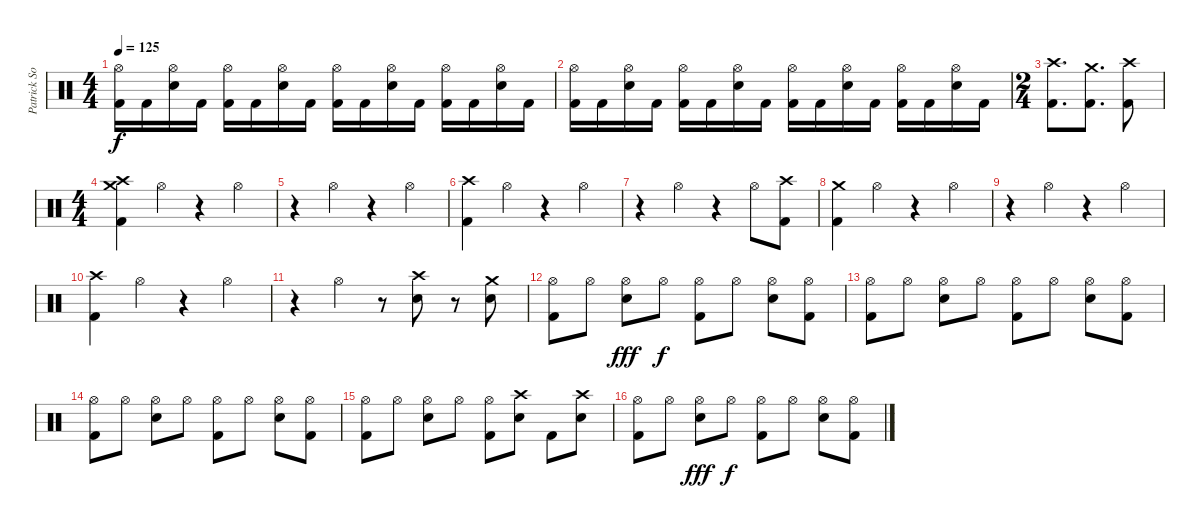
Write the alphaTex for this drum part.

\track ("Patrick Soria" "Patrick So") {instrument percussion}
\staff {score}
\articulation defaults
\ts (4 4)
\tempo 125
\clef neutral
\ks c
("Hi-Hat (open)" "Kick (hit) 2").16{dy f} "Kick (hit) 2".16 ("Hi-Hat (open)" "Snare (hit) 2").16 "Kick (hit) 2".16 ("Hi-Hat (open)" "Kick (hit) 2").16 "Kick (hit) 2".16 ("Hi-Hat (open)" "Snare (hit) 2").16 "Kick (hit) 2".16 ("Hi-Hat (open)" "Kick (hit) 2").16 "Kick (hit) 2".16 ("Hi-Hat (open)" "Snare (hit) 2").16 "Kick (hit) 2".16 ("Hi-Hat (open)" "Kick (hit) 2").16 "Kick (hit) 2".16 ("Hi-Hat (open)" "Snare (hit) 2").16 "Kick (hit) 2".16 |
("Hi-Hat (open)" "Kick (hit) 2").16 "Kick (hit) 2".16 ("Hi-Hat (open)" "Snare (hit) 2").16 "Kick (hit) 2".16 ("Hi-Hat (open)" "Kick (hit) 2").16 "Kick (hit) 2".16 ("Hi-Hat (open)" "Snare (hit) 2").16 "Kick (hit) 2".16 ("Hi-Hat (open)" "Kick (hit) 2").16 "Kick (hit) 2".16 ("Hi-Hat (open)" "Snare (hit) 2").16 "Kick (hit) 2".16 ("Hi-Hat (open)" "Kick (hit) 2").16 "Kick (hit) 2".16 ("Hi-Hat (open)" "Snare (hit) 2").16 "Kick (hit) 2".16 |
\ts (2 4)
("Crash high (hit)" "Kick (hit) 2").8{d} ("Crash medium (hit)" "Kick (hit) 2").8{d} ("Crash high (hit)" "Kick (hit) 2").8 |
\ts (4 4)
("Crash high (hit)" "Crash medium (hit)" "Kick (hit) 2").4 "Hi-Hat (open)".4 r.4 "Hi-Hat (open)".4 |
r.4 "Hi-Hat (open)".4 r.4 "Hi-Hat (open)".4 |
("Crash high (hit)" "Kick (hit) 2").4 "Hi-Hat (open)".4 r.4 "Hi-Hat (open)".4 |
r.4 "Hi-Hat (open)".4 r.4 "Hi-Hat (open)".8 ("Crash high (hit)" "Kick (hit) 2").8 |
("Crash medium (hit)" "Kick (hit) 2").4 "Hi-Hat (open)".4 r.4 "Hi-Hat (open)".4 |
r.4 "Hi-Hat (open)".4 r.4 "Hi-Hat (open)".4 |
("Crash high (hit)" "Kick (hit) 2").4 "Hi-Hat (open)".4 r.4 "Hi-Hat (open)".4 |
r.4 "Hi-Hat (open)".4 r.8 ("Crash high (hit)" "Snare (hit) 2").8 r.8 ("Crash medium (hit)" "Snare (hit) 2").8 |
("Hi-Hat (open)" "Kick (hit) 2").8 "Hi-Hat (open)".8 ("Hi-Hat (open)" "Snare (hit) 2").8{dy fff} "Hi-Hat (open)".8{dy f} ("Hi-Hat (open)" "Kick (hit) 2").8 "Hi-Hat (open)".8 ("Hi-Hat (open)" "Snare (hit) 2").8 ("Hi-Hat (open)" "Kick (hit) 2").8 |
("Hi-Hat (open)" "Kick (hit) 2").8 "Hi-Hat (open)".8 ("Hi-Hat (open)" "Snare (hit) 2").8 "Hi-Hat (open)".8 ("Hi-Hat (open)" "Kick (hit) 2").8 "Hi-Hat (open)".8 ("Hi-Hat (open)" "Snare (hit) 2").8 ("Hi-Hat (open)" "Kick (hit) 2").8 |
("Hi-Hat (open)" "Kick (hit) 2").8 "Hi-Hat (open)".8 ("Hi-Hat (open)" "Snare (hit) 2").8 "Hi-Hat (open)".8 ("Hi-Hat (open)" "Kick (hit) 2").8 "Hi-Hat (open)".8 ("Hi-Hat (open)" "Snare (hit) 2").8 ("Hi-Hat (open)" "Kick (hit) 2").8 |
("Hi-Hat (open)" "Kick (hit) 2").8 "Hi-Hat (open)".8 ("Hi-Hat (open)" "Snare (hit) 2").8 "Hi-Hat (open)".8 ("Hi-Hat (open)" "Kick (hit) 2").8 ("Crash high (hit)" "Snare (hit) 2").8 "Kick (hit) 2".8 ("Crash high (hit)" "Snare (hit) 2").8 |
("Hi-Hat (open)" "Kick (hit) 2").8 "Hi-Hat (open)".8 ("Hi-Hat (open)" "Snare (hit) 2").8{dy fff} "Hi-Hat (open)".8{dy f} ("Hi-Hat (open)" "Kick (hit) 2").8 "Hi-Hat (open)".8 ("Hi-Hat (open)" "Snare (hit) 2").8 ("Hi-Hat (open)" "Kick (hit) 2").8
